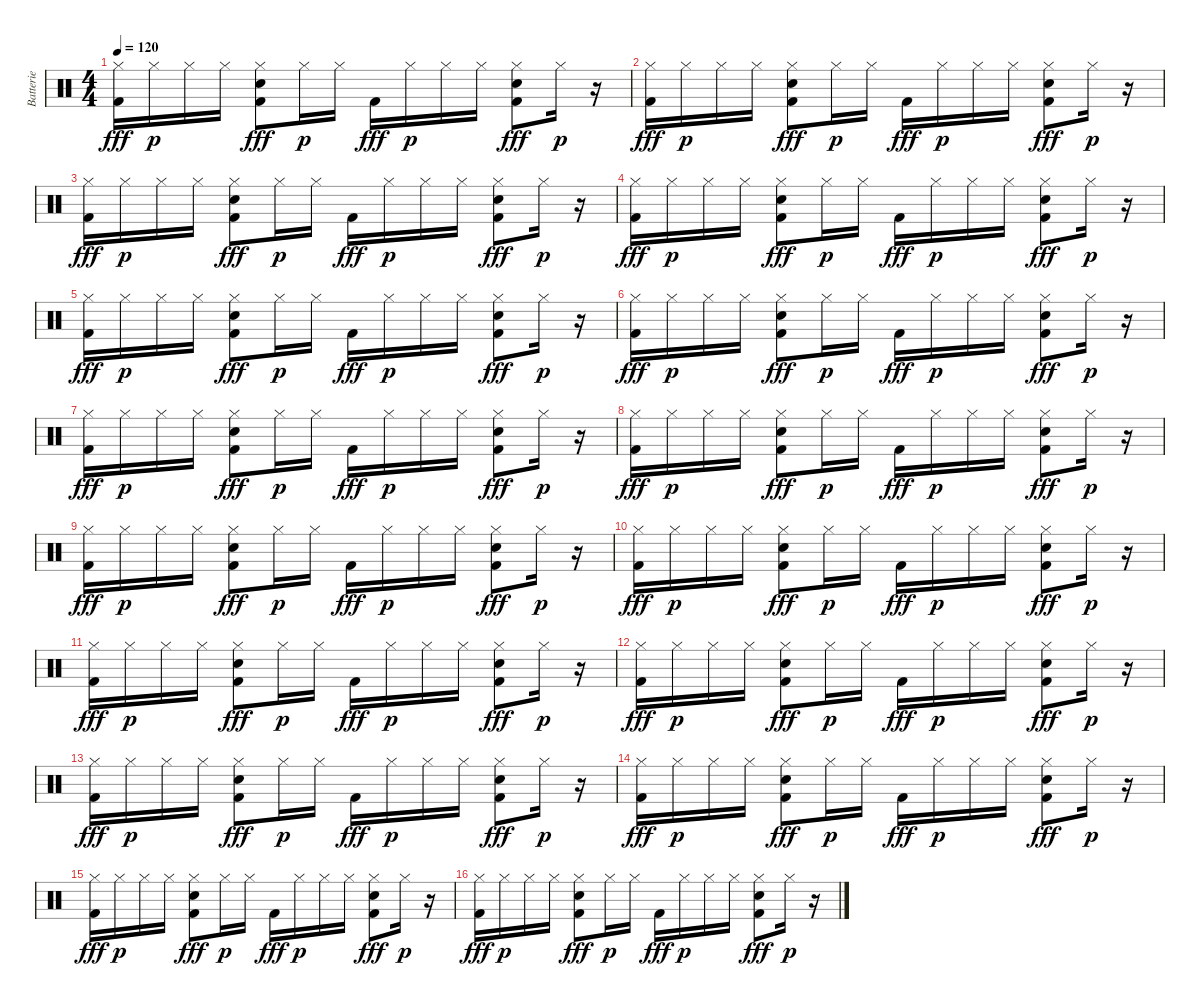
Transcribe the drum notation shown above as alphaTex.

\track ("Batterie" "Batterie") {instrument percussion}
\staff {score}
\articulation defaults
\ts (4 4)
\tempo 120
\clef neutral
\ks c
("Hi-Hat (closed)" "Kick (hit) 2").16{dy fff} "Hi-Hat (closed)".16{dy p} "Hi-Hat (closed)".16 "Hi-Hat (closed)".16 ("Hi-Hat (closed)" "Hand Clap (hit)" "Kick (hit) 2").8{dy fff} "Hi-Hat (closed)".16{dy p} "Hi-Hat (closed)".16 "Kick (hit) 2".16{dy fff} "Hi-Hat (closed)".16{dy p} "Hi-Hat (closed)".16 "Hi-Hat (closed)".16 ("Hi-Hat (closed)" "Hand Clap (hit)" "Kick (hit) 2").8{dy fff} "Hi-Hat (closed)".16{dy p} r.16 |
("Hi-Hat (closed)" "Kick (hit) 2").16{dy fff} "Hi-Hat (closed)".16{dy p} "Hi-Hat (closed)".16 "Hi-Hat (closed)".16 ("Hi-Hat (closed)" "Hand Clap (hit)" "Kick (hit) 2").8{dy fff} "Hi-Hat (closed)".16{dy p} "Hi-Hat (closed)".16 "Kick (hit) 2".16{dy fff} "Hi-Hat (closed)".16{dy p} "Hi-Hat (closed)".16 "Hi-Hat (closed)".16 ("Hi-Hat (closed)" "Hand Clap (hit)" "Kick (hit) 2").8{dy fff} "Hi-Hat (closed)".16{dy p} r.16 |
("Hi-Hat (closed)" "Kick (hit) 2").16{dy fff} "Hi-Hat (closed)".16{dy p} "Hi-Hat (closed)".16 "Hi-Hat (closed)".16 ("Hi-Hat (closed)" "Hand Clap (hit)" "Kick (hit) 2").8{dy fff} "Hi-Hat (closed)".16{dy p} "Hi-Hat (closed)".16 "Kick (hit) 2".16{dy fff} "Hi-Hat (closed)".16{dy p} "Hi-Hat (closed)".16 "Hi-Hat (closed)".16 ("Hi-Hat (closed)" "Hand Clap (hit)" "Kick (hit) 2").8{dy fff} "Hi-Hat (closed)".16{dy p} r.16 |
("Hi-Hat (closed)" "Kick (hit) 2").16{dy fff} "Hi-Hat (closed)".16{dy p} "Hi-Hat (closed)".16 "Hi-Hat (closed)".16 ("Hi-Hat (closed)" "Hand Clap (hit)" "Kick (hit) 2").8{dy fff} "Hi-Hat (closed)".16{dy p} "Hi-Hat (closed)".16 "Kick (hit) 2".16{dy fff} "Hi-Hat (closed)".16{dy p} "Hi-Hat (closed)".16 "Hi-Hat (closed)".16 ("Hi-Hat (closed)" "Hand Clap (hit)" "Kick (hit) 2").8{dy fff} "Hi-Hat (closed)".16{dy p} r.16 |
("Hi-Hat (closed)" "Kick (hit) 2").16{dy fff} "Hi-Hat (closed)".16{dy p} "Hi-Hat (closed)".16 "Hi-Hat (closed)".16 ("Hi-Hat (closed)" "Hand Clap (hit)" "Kick (hit) 2").8{dy fff} "Hi-Hat (closed)".16{dy p} "Hi-Hat (closed)".16 "Kick (hit) 2".16{dy fff} "Hi-Hat (closed)".16{dy p} "Hi-Hat (closed)".16 "Hi-Hat (closed)".16 ("Hi-Hat (closed)" "Hand Clap (hit)" "Kick (hit) 2").8{dy fff} "Hi-Hat (closed)".16{dy p} r.16 |
("Hi-Hat (closed)" "Kick (hit) 2").16{dy fff} "Hi-Hat (closed)".16{dy p} "Hi-Hat (closed)".16 "Hi-Hat (closed)".16 ("Hi-Hat (closed)" "Hand Clap (hit)" "Kick (hit) 2").8{dy fff} "Hi-Hat (closed)".16{dy p} "Hi-Hat (closed)".16 "Kick (hit) 2".16{dy fff} "Hi-Hat (closed)".16{dy p} "Hi-Hat (closed)".16 "Hi-Hat (closed)".16 ("Hi-Hat (closed)" "Hand Clap (hit)" "Kick (hit) 2").8{dy fff} "Hi-Hat (closed)".16{dy p} r.16 |
("Hi-Hat (closed)" "Kick (hit) 2").16{dy fff} "Hi-Hat (closed)".16{dy p} "Hi-Hat (closed)".16 "Hi-Hat (closed)".16 ("Hi-Hat (closed)" "Hand Clap (hit)" "Kick (hit) 2").8{dy fff} "Hi-Hat (closed)".16{dy p} "Hi-Hat (closed)".16 "Kick (hit) 2".16{dy fff} "Hi-Hat (closed)".16{dy p} "Hi-Hat (closed)".16 "Hi-Hat (closed)".16 ("Hi-Hat (closed)" "Hand Clap (hit)" "Kick (hit) 2").8{dy fff} "Hi-Hat (closed)".16{dy p} r.16 |
("Hi-Hat (closed)" "Kick (hit) 2").16{dy fff} "Hi-Hat (closed)".16{dy p} "Hi-Hat (closed)".16 "Hi-Hat (closed)".16 ("Hi-Hat (closed)" "Hand Clap (hit)" "Kick (hit) 2").8{dy fff} "Hi-Hat (closed)".16{dy p} "Hi-Hat (closed)".16 "Kick (hit) 2".16{dy fff} "Hi-Hat (closed)".16{dy p} "Hi-Hat (closed)".16 "Hi-Hat (closed)".16 ("Hi-Hat (closed)" "Hand Clap (hit)" "Kick (hit) 2").8{dy fff} "Hi-Hat (closed)".16{dy p} r.16 |
("Hi-Hat (closed)" "Kick (hit) 2").16{dy fff} "Hi-Hat (closed)".16{dy p} "Hi-Hat (closed)".16 "Hi-Hat (closed)".16 ("Hi-Hat (closed)" "Hand Clap (hit)" "Kick (hit) 2").8{dy fff} "Hi-Hat (closed)".16{dy p} "Hi-Hat (closed)".16 "Kick (hit) 2".16{dy fff} "Hi-Hat (closed)".16{dy p} "Hi-Hat (closed)".16 "Hi-Hat (closed)".16 ("Hi-Hat (closed)" "Hand Clap (hit)" "Kick (hit) 2").8{dy fff} "Hi-Hat (closed)".16{dy p} r.16 |
("Hi-Hat (closed)" "Kick (hit) 2").16{dy fff} "Hi-Hat (closed)".16{dy p} "Hi-Hat (closed)".16 "Hi-Hat (closed)".16 ("Hi-Hat (closed)" "Hand Clap (hit)" "Kick (hit) 2").8{dy fff} "Hi-Hat (closed)".16{dy p} "Hi-Hat (closed)".16 "Kick (hit) 2".16{dy fff} "Hi-Hat (closed)".16{dy p} "Hi-Hat (closed)".16 "Hi-Hat (closed)".16 ("Hi-Hat (closed)" "Hand Clap (hit)" "Kick (hit) 2").8{dy fff} "Hi-Hat (closed)".16{dy p} r.16 |
("Hi-Hat (closed)" "Kick (hit) 2").16{dy fff} "Hi-Hat (closed)".16{dy p} "Hi-Hat (closed)".16 "Hi-Hat (closed)".16 ("Hi-Hat (closed)" "Hand Clap (hit)" "Kick (hit) 2").8{dy fff} "Hi-Hat (closed)".16{dy p} "Hi-Hat (closed)".16 "Kick (hit) 2".16{dy fff} "Hi-Hat (closed)".16{dy p} "Hi-Hat (closed)".16 "Hi-Hat (closed)".16 ("Hi-Hat (closed)" "Hand Clap (hit)" "Kick (hit) 2").8{dy fff} "Hi-Hat (closed)".16{dy p} r.16 |
("Hi-Hat (closed)" "Kick (hit) 2").16{dy fff} "Hi-Hat (closed)".16{dy p} "Hi-Hat (closed)".16 "Hi-Hat (closed)".16 ("Hi-Hat (closed)" "Hand Clap (hit)" "Kick (hit) 2").8{dy fff} "Hi-Hat (closed)".16{dy p} "Hi-Hat (closed)".16 "Kick (hit) 2".16{dy fff} "Hi-Hat (closed)".16{dy p} "Hi-Hat (closed)".16 "Hi-Hat (closed)".16 ("Hi-Hat (closed)" "Hand Clap (hit)" "Kick (hit) 2").8{dy fff} "Hi-Hat (closed)".16{dy p} r.16 |
("Hi-Hat (closed)" "Kick (hit) 2").16{dy fff} "Hi-Hat (closed)".16{dy p} "Hi-Hat (closed)".16 "Hi-Hat (closed)".16 ("Hi-Hat (closed)" "Hand Clap (hit)" "Kick (hit) 2").8{dy fff} "Hi-Hat (closed)".16{dy p} "Hi-Hat (closed)".16 "Kick (hit) 2".16{dy fff} "Hi-Hat (closed)".16{dy p} "Hi-Hat (closed)".16 "Hi-Hat (closed)".16 ("Hi-Hat (closed)" "Hand Clap (hit)" "Kick (hit) 2").8{dy fff} "Hi-Hat (closed)".16{dy p} r.16 |
("Hi-Hat (closed)" "Kick (hit) 2").16{dy fff} "Hi-Hat (closed)".16{dy p} "Hi-Hat (closed)".16 "Hi-Hat (closed)".16 ("Hi-Hat (closed)" "Hand Clap (hit)" "Kick (hit) 2").8{dy fff} "Hi-Hat (closed)".16{dy p} "Hi-Hat (closed)".16 "Kick (hit) 2".16{dy fff} "Hi-Hat (closed)".16{dy p} "Hi-Hat (closed)".16 "Hi-Hat (closed)".16 ("Hi-Hat (closed)" "Hand Clap (hit)" "Kick (hit) 2").8{dy fff} "Hi-Hat (closed)".16{dy p} r.16 |
("Hi-Hat (closed)" "Kick (hit) 2").16{dy fff} "Hi-Hat (closed)".16{dy p} "Hi-Hat (closed)".16 "Hi-Hat (closed)".16 ("Hi-Hat (closed)" "Hand Clap (hit)" "Kick (hit) 2").8{dy fff} "Hi-Hat (closed)".16{dy p} "Hi-Hat (closed)".16 "Kick (hit) 2".16{dy fff} "Hi-Hat (closed)".16{dy p} "Hi-Hat (closed)".16 "Hi-Hat (closed)".16 ("Hi-Hat (closed)" "Hand Clap (hit)" "Kick (hit) 2").8{dy fff} "Hi-Hat (closed)".16{dy p} r.16 |
("Hi-Hat (closed)" "Kick (hit) 2").16{dy fff} "Hi-Hat (closed)".16{dy p} "Hi-Hat (closed)".16 "Hi-Hat (closed)".16 ("Hi-Hat (closed)" "Hand Clap (hit)" "Kick (hit) 2").8{dy fff} "Hi-Hat (closed)".16{dy p} "Hi-Hat (closed)".16 "Kick (hit) 2".16{dy fff} "Hi-Hat (closed)".16{dy p} "Hi-Hat (closed)".16 "Hi-Hat (closed)".16 ("Hi-Hat (closed)" "Hand Clap (hit)" "Kick (hit) 2").8{dy fff} "Hi-Hat (closed)".16{dy p} r.16
